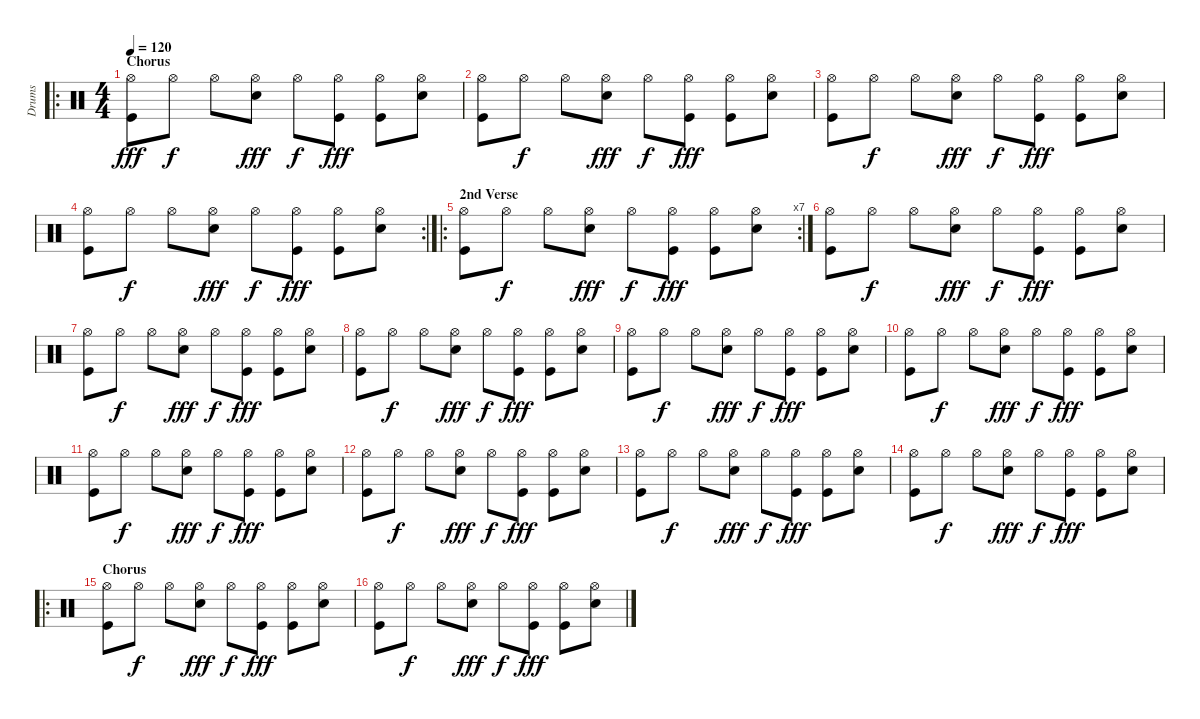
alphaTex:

\track ("Drums" "Drums") {instrument percussion}
\staff {score}
\articulation defaults
\ro
\ts (4 4)
\section ("" "Chorus")
\tempo 120
\clef neutral
\ks c
("Kick (hit)" "Hi-Hat (open)").8{dy fff} "Hi-Hat (open)".8{dy f} "Hi-Hat (open)".8 ("Snare (hit) 2" "Hi-Hat (open)").8{dy fff} "Hi-Hat (open)".8{dy f} ("Kick (hit)" "Hi-Hat (open)").8{dy fff} ("Kick (hit)" "Hi-Hat (open)").8 ("Snare (hit) 2" "Hi-Hat (open)").8 |
("Kick (hit)" "Hi-Hat (open)").8 "Hi-Hat (open)".8{dy f} "Hi-Hat (open)".8 ("Snare (hit) 2" "Hi-Hat (open)").8{dy fff} "Hi-Hat (open)".8{dy f} ("Kick (hit)" "Hi-Hat (open)").8{dy fff} ("Kick (hit)" "Hi-Hat (open)").8 ("Snare (hit) 2" "Hi-Hat (open)").8 |
("Kick (hit)" "Hi-Hat (open)").8 "Hi-Hat (open)".8{dy f} "Hi-Hat (open)".8 ("Snare (hit) 2" "Hi-Hat (open)").8{dy fff} "Hi-Hat (open)".8{dy f} ("Kick (hit)" "Hi-Hat (open)").8{dy fff} ("Kick (hit)" "Hi-Hat (open)").8 ("Snare (hit) 2" "Hi-Hat (open)").8 |
\rc 2
("Kick (hit)" "Hi-Hat (open)").8 "Hi-Hat (open)".8{dy f} "Hi-Hat (open)".8 ("Snare (hit) 2" "Hi-Hat (open)").8{dy fff} "Hi-Hat (open)".8{dy f} ("Kick (hit)" "Hi-Hat (open)").8{dy fff} ("Kick (hit)" "Hi-Hat (open)").8 ("Snare (hit) 2" "Hi-Hat (open)").8 |
\ro
\rc 7
\section ("" "2nd Verse")
("Kick (hit)" "Hi-Hat (open)").8 "Hi-Hat (open)".8{dy f} "Hi-Hat (open)".8 ("Snare (hit) 2" "Hi-Hat (open)").8{dy fff} "Hi-Hat (open)".8{dy f} ("Kick (hit)" "Hi-Hat (open)").8{dy fff} ("Kick (hit)" "Hi-Hat (open)").8 ("Snare (hit) 2" "Hi-Hat (open)").8 |
("Kick (hit)" "Hi-Hat (open)").8 "Hi-Hat (open)".8{dy f} "Hi-Hat (open)".8 ("Snare (hit) 2" "Hi-Hat (open)").8{dy fff} "Hi-Hat (open)".8{dy f} ("Kick (hit)" "Hi-Hat (open)").8{dy fff} ("Kick (hit)" "Hi-Hat (open)").8 ("Snare (hit) 2" "Hi-Hat (open)").8 |
("Kick (hit)" "Hi-Hat (open)").8 "Hi-Hat (open)".8{dy f} "Hi-Hat (open)".8 ("Snare (hit) 2" "Hi-Hat (open)").8{dy fff} "Hi-Hat (open)".8{dy f} ("Kick (hit)" "Hi-Hat (open)").8{dy fff} ("Kick (hit)" "Hi-Hat (open)").8 ("Snare (hit) 2" "Hi-Hat (open)").8 |
("Kick (hit)" "Hi-Hat (open)").8 "Hi-Hat (open)".8{dy f} "Hi-Hat (open)".8 ("Snare (hit) 2" "Hi-Hat (open)").8{dy fff} "Hi-Hat (open)".8{dy f} ("Kick (hit)" "Hi-Hat (open)").8{dy fff} ("Kick (hit)" "Hi-Hat (open)").8 ("Snare (hit) 2" "Hi-Hat (open)").8 |
("Kick (hit)" "Hi-Hat (open)").8 "Hi-Hat (open)".8{dy f} "Hi-Hat (open)".8 ("Snare (hit) 2" "Hi-Hat (open)").8{dy fff} "Hi-Hat (open)".8{dy f} ("Kick (hit)" "Hi-Hat (open)").8{dy fff} ("Kick (hit)" "Hi-Hat (open)").8 ("Snare (hit) 2" "Hi-Hat (open)").8 |
("Kick (hit)" "Hi-Hat (open)").8 "Hi-Hat (open)".8{dy f} "Hi-Hat (open)".8 ("Snare (hit) 2" "Hi-Hat (open)").8{dy fff} "Hi-Hat (open)".8{dy f} ("Kick (hit)" "Hi-Hat (open)").8{dy fff} ("Kick (hit)" "Hi-Hat (open)").8 ("Snare (hit) 2" "Hi-Hat (open)").8 |
("Kick (hit)" "Hi-Hat (open)").8 "Hi-Hat (open)".8{dy f} "Hi-Hat (open)".8 ("Snare (hit) 2" "Hi-Hat (open)").8{dy fff} "Hi-Hat (open)".8{dy f} ("Kick (hit)" "Hi-Hat (open)").8{dy fff} ("Kick (hit)" "Hi-Hat (open)").8 ("Snare (hit) 2" "Hi-Hat (open)").8 |
("Kick (hit)" "Hi-Hat (open)").8 "Hi-Hat (open)".8{dy f} "Hi-Hat (open)".8 ("Snare (hit) 2" "Hi-Hat (open)").8{dy fff} "Hi-Hat (open)".8{dy f} ("Kick (hit)" "Hi-Hat (open)").8{dy fff} ("Kick (hit)" "Hi-Hat (open)").8 ("Snare (hit) 2" "Hi-Hat (open)").8 |
("Kick (hit)" "Hi-Hat (open)").8 "Hi-Hat (open)".8{dy f} "Hi-Hat (open)".8 ("Snare (hit) 2" "Hi-Hat (open)").8{dy fff} "Hi-Hat (open)".8{dy f} ("Kick (hit)" "Hi-Hat (open)").8{dy fff} ("Kick (hit)" "Hi-Hat (open)").8 ("Snare (hit) 2" "Hi-Hat (open)").8 |
("Kick (hit)" "Hi-Hat (open)").8 "Hi-Hat (open)".8{dy f} "Hi-Hat (open)".8 ("Snare (hit) 2" "Hi-Hat (open)").8{dy fff} "Hi-Hat (open)".8{dy f} ("Kick (hit)" "Hi-Hat (open)").8{dy fff} ("Kick (hit)" "Hi-Hat (open)").8 ("Snare (hit) 2" "Hi-Hat (open)").8 |
\ro
\section ("" "Chorus")
("Kick (hit)" "Hi-Hat (open)").8 "Hi-Hat (open)".8{dy f} "Hi-Hat (open)".8 ("Snare (hit) 2" "Hi-Hat (open)").8{dy fff} "Hi-Hat (open)".8{dy f} ("Kick (hit)" "Hi-Hat (open)").8{dy fff} ("Kick (hit)" "Hi-Hat (open)").8 ("Snare (hit) 2" "Hi-Hat (open)").8 |
("Kick (hit)" "Hi-Hat (open)").8 "Hi-Hat (open)".8{dy f} "Hi-Hat (open)".8 ("Snare (hit) 2" "Hi-Hat (open)").8{dy fff} "Hi-Hat (open)".8{dy f} ("Kick (hit)" "Hi-Hat (open)").8{dy fff} ("Kick (hit)" "Hi-Hat (open)").8 ("Snare (hit) 2" "Hi-Hat (open)").8
